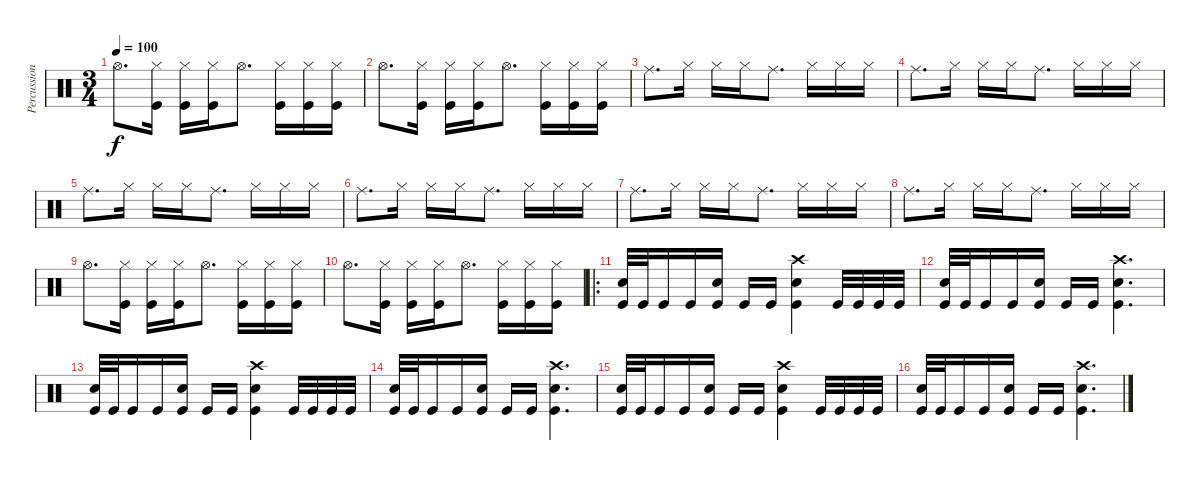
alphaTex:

\track ("Percussion" "Percussion") {instrument percussion}
\staff
\articulation defaults
\ts (3 4)
\tempo 100
\clef neutral
\ks c "Hi-Hat (open)".8{d dy f}
("Hi-Hat (closed)" "Kick (hit)").16 ("Hi-Hat (closed)" "Kick (hit)").16 ("Hi-Hat (closed)" "Kick (hit)").16 "Hi-Hat (open)".8{d} ("Hi-Hat (closed)" "Kick (hit)").16 ("Hi-Hat (closed)" "Kick (hit)").16 ("Hi-Hat (closed)" "Kick (hit)").16 |
"Hi-Hat (open)".8{d} ("Hi-Hat (closed)" "Kick (hit)").16 ("Hi-Hat (closed)" "Kick (hit)").16 ("Hi-Hat (closed)" "Kick (hit)").16 "Hi-Hat (open)".8{d} ("Hi-Hat (closed)" "Kick (hit)").16 ("Hi-Hat (closed)" "Kick (hit)").16 ("Hi-Hat (closed)" "Kick (hit)").16 |
"Ride (middle)".8{d} "Hi-Hat (closed)".16 "Hi-Hat (closed)".16 "Hi-Hat (closed)".16 "Ride (middle)".8{d} "Hi-Hat (closed)".16 "Hi-Hat (closed)".16 "Hi-Hat (closed)".16 |
"Ride (middle)".8{d} "Hi-Hat (closed)".16 "Hi-Hat (closed)".16 "Hi-Hat (closed)".16 "Ride (middle)".8{d} "Hi-Hat (closed)".16 "Hi-Hat (closed)".16 "Hi-Hat (closed)".16 |
"Ride (middle)".8{d} "Hi-Hat (closed)".16 "Hi-Hat (closed)".16 "Hi-Hat (closed)".16 "Ride (middle)".8{d} "Hi-Hat (closed)".16 "Hi-Hat (closed)".16 "Hi-Hat (closed)".16 |
"Ride (middle)".8{d} "Hi-Hat (closed)".16 "Hi-Hat (closed)".16 "Hi-Hat (closed)".16 "Ride (middle)".8{d} "Hi-Hat (closed)".16 "Hi-Hat (closed)".16 "Hi-Hat (closed)".16 |
"Ride (middle)".8{d} "Hi-Hat (closed)".16 "Hi-Hat (closed)".16 "Hi-Hat (closed)".16 "Ride (middle)".8{d} "Hi-Hat (closed)".16 "Hi-Hat (closed)".16 "Hi-Hat (closed)".16 |
"Ride (middle)".8{d} "Hi-Hat (closed)".16 "Hi-Hat (closed)".16 "Hi-Hat (closed)".16 "Ride (middle)".8{d} "Hi-Hat (closed)".16 "Hi-Hat (closed)".16 "Hi-Hat (closed)".16 |
"Hi-Hat (open)".8{d} ("Hi-Hat (closed)" "Kick (hit)").16 ("Hi-Hat (closed)" "Kick (hit)").16 ("Hi-Hat (closed)" "Kick (hit)").16 "Hi-Hat (open)".8{d} ("Hi-Hat (closed)" "Kick (hit)").16 ("Hi-Hat (closed)" "Kick (hit)").16 ("Hi-Hat (closed)" "Kick (hit)").16 |
"Hi-Hat (open)".8{d} ("Hi-Hat (closed)" "Kick (hit)").16 ("Hi-Hat (closed)" "Kick (hit)").16 ("Hi-Hat (closed)" "Kick (hit)").16 "Hi-Hat (open)".8{d} ("Hi-Hat (closed)" "Kick (hit)").16 ("Hi-Hat (closed)" "Kick (hit)").16 ("Hi-Hat (closed)" "Kick (hit)").16 |
\ro
("Electric Snare (hit)" "Kick (hit)").32 "Kick (hit)".32 "Kick (hit)".16 "Kick (hit)".16 ("Electric Snare (hit)" "Kick (hit)").16 "Kick (hit)".16 "Kick (hit)".16 ("Crash high (hit)" "Electric Snare (hit)" "Kick (hit)").4 "Kick (hit)".32 "Kick (hit)".32 "Kick (hit)".32 "Kick (hit)".32 |
("Electric Snare (hit)" "Kick (hit)").32 "Kick (hit)".32 "Kick (hit)".16 "Kick (hit)".16 ("Electric Snare (hit)" "Kick (hit)").16 "Kick (hit)".16 "Kick (hit)".16 ("Crash high (hit)" "Electric Snare (hit)" "Kick (hit)").4{d} |
("Electric Snare (hit)" "Kick (hit)").32 "Kick (hit)".32 "Kick (hit)".16 "Kick (hit)".16 ("Electric Snare (hit)" "Kick (hit)").16 "Kick (hit)".16 "Kick (hit)".16 ("Crash high (hit)" "Electric Snare (hit)" "Kick (hit)").4 "Kick (hit)".32 "Kick (hit)".32 "Kick (hit)".32 "Kick (hit)".32 |
("Electric Snare (hit)" "Kick (hit)").32 "Kick (hit)".32 "Kick (hit)".16 "Kick (hit)".16 ("Electric Snare (hit)" "Kick (hit)").16 "Kick (hit)".16 "Kick (hit)".16 ("Crash high (hit)" "Electric Snare (hit)" "Kick (hit)").4{d} |
("Electric Snare (hit)" "Kick (hit)").32 "Kick (hit)".32 "Kick (hit)".16 "Kick (hit)".16 ("Electric Snare (hit)" "Kick (hit)").16 "Kick (hit)".16 "Kick (hit)".16 ("Crash high (hit)" "Electric Snare (hit)" "Kick (hit)").4 "Kick (hit)".32 "Kick (hit)".32 "Kick (hit)".32 "Kick (hit)".32 |
("Electric Snare (hit)" "Kick (hit)").32 "Kick (hit)".32 "Kick (hit)".16 "Kick (hit)".16 ("Electric Snare (hit)" "Kick (hit)").16 "Kick (hit)".16 "Kick (hit)".16 ("Crash high (hit)" "Electric Snare (hit)" "Kick (hit)").4{d}
